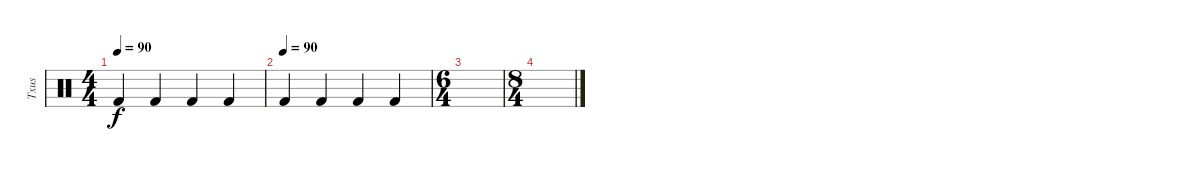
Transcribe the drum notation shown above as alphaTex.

\track ("Txus" "Txus") {instrument percussion}
\staff {score}
\articulation defaults
\ts (4 4)
\tempo 90
\clef neutral
\ks c "Kick (hit) 2".4{dy f} "Kick (hit) 2".4 "Kick (hit) 2".4 "Kick (hit) 2".4
|
\tempo (90)
"Kick (hit) 2".4 "Kick (hit) 2".4 "Kick (hit) 2".4 "Kick (hit) 2".4 |
\ts (6 4)
|
\ts (8 4)
